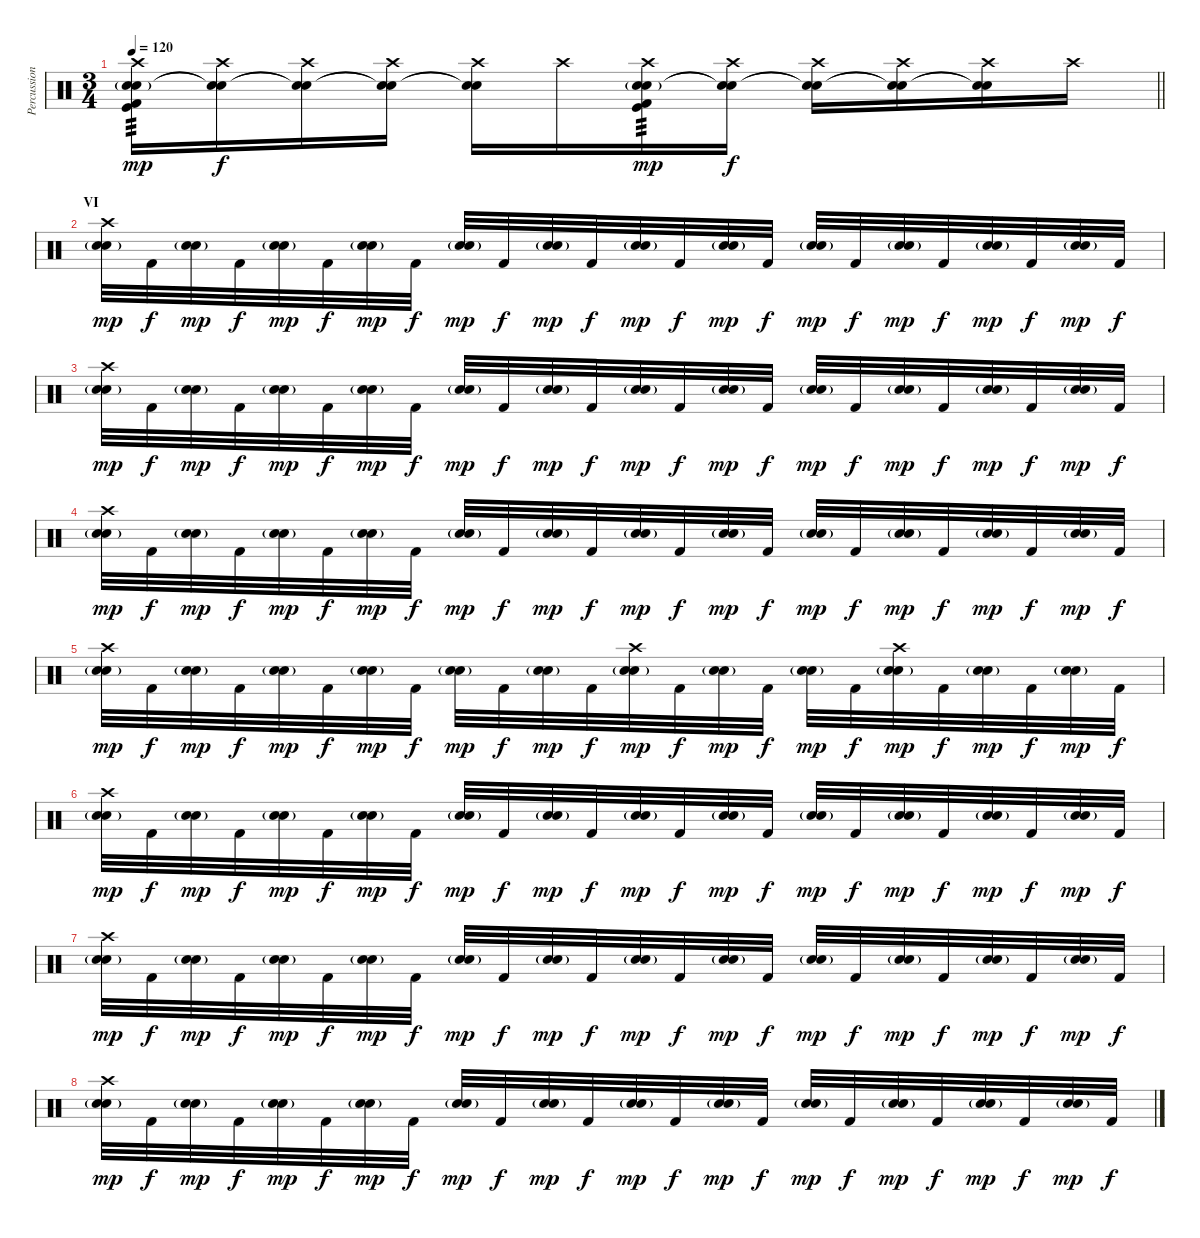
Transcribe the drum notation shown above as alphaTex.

\track ("Percussion" "Percussion") {instrument percussion}
\staff {score}
\articulation defaults
\ts (3 4)
\tempo 120
\clef neutral
\barLineRight lightlight
\ks c
("Crash high (hit)" "Electric Snare (hit)" "Snare (hit) 2"{g} "Kick (hit) 2" "Kick (hit)").16{tp 3 dy mp} ("Crash high (hit)" "Snare (hit)"{t} "Snare (hit)"{t}).16{dy f} ("Crash high (hit)" "Snare (hit)"{t} "Snare (hit)"{t}).16 ("Crash high (hit)" "Snare (hit)"{t} "Snare (hit)"{t}).16 ("Crash high (hit)" "Snare (hit)"{t} "Snare (hit)"{t}).16 "Crash high (hit)".16 ("Crash high (hit)" "Electric Snare (hit)" "Snare (hit) 2"{g} "Kick (hit) 2" "Kick (hit)").16{tp 3 dy mp} ("Crash high (hit)" "Snare (hit)"{t} "Snare (hit)"{t}).16{dy f} ("Crash high (hit)" "Snare (hit)"{t} "Snare (hit)"{t}).16 ("Crash high (hit)" "Snare (hit)"{t} "Snare (hit)"{t}).16 ("Crash high (hit)" "Snare (hit)"{t} "Snare (hit)"{t}).16 "Crash high (hit)".16 |
\section ("" "VI")
("Crash high (hit)" "Electric Snare (hit)" "Snare (hit) 2"{g}).32{dy mp} "Kick (hit) 2".32{dy f} ("Electric Snare (hit)" "Snare (hit) 2"{g}).32{dy mp} "Kick (hit) 2".32{dy f} ("Electric Snare (hit)" "Snare (hit) 2"{g}).32{dy mp} "Kick (hit) 2".32{dy f} ("Electric Snare (hit)" "Snare (hit) 2"{g}).32{dy mp} "Kick (hit) 2".32{dy f} ("Electric Snare (hit)" "Snare (hit) 2"{g}).32{dy mp} "Kick (hit) 2".32{dy f} ("Electric Snare (hit)" "Snare (hit) 2"{g}).32{dy mp} "Kick (hit) 2".32{dy f} ("Electric Snare (hit)" "Snare (hit) 2"{g}).32{dy mp} "Kick (hit) 2".32{dy f} ("Electric Snare (hit)" "Snare (hit) 2"{g}).32{dy mp} "Kick (hit) 2".32{dy f} ("Electric Snare (hit)" "Snare (hit) 2"{g}).32{dy mp} "Kick (hit) 2".32{dy f} ("Electric Snare (hit)" "Snare (hit) 2"{g}).32{dy mp} "Kick (hit) 2".32{dy f} ("Electric Snare (hit)" "Snare (hit) 2"{g}).32{dy mp} "Kick (hit) 2".32{dy f} ("Electric Snare (hit)" "Snare (hit) 2"{g}).32{dy mp} "Kick (hit) 2".32{dy f} |
("Crash high (hit)" "Electric Snare (hit)" "Snare (hit) 2"{g}).32{dy mp} "Kick (hit) 2".32{dy f} ("Electric Snare (hit)" "Snare (hit) 2"{g}).32{dy mp} "Kick (hit) 2".32{dy f} ("Electric Snare (hit)" "Snare (hit) 2"{g}).32{dy mp} "Kick (hit) 2".32{dy f} ("Electric Snare (hit)" "Snare (hit) 2"{g}).32{dy mp} "Kick (hit) 2".32{dy f} ("Electric Snare (hit)" "Snare (hit) 2"{g}).32{dy mp} "Kick (hit) 2".32{dy f} ("Electric Snare (hit)" "Snare (hit) 2"{g}).32{dy mp} "Kick (hit) 2".32{dy f} ("Electric Snare (hit)" "Snare (hit) 2"{g}).32{dy mp} "Kick (hit) 2".32{dy f} ("Electric Snare (hit)" "Snare (hit) 2"{g}).32{dy mp} "Kick (hit) 2".32{dy f} ("Electric Snare (hit)" "Snare (hit) 2"{g}).32{dy mp} "Kick (hit) 2".32{dy f} ("Electric Snare (hit)" "Snare (hit) 2"{g}).32{dy mp} "Kick (hit) 2".32{dy f} ("Electric Snare (hit)" "Snare (hit) 2"{g}).32{dy mp} "Kick (hit) 2".32{dy f} ("Electric Snare (hit)" "Snare (hit) 2"{g}).32{dy mp} "Kick (hit) 2".32{dy f} |
("Crash high (hit)" "Electric Snare (hit)" "Snare (hit) 2"{g}).32{dy mp} "Kick (hit) 2".32{dy f} ("Electric Snare (hit)" "Snare (hit) 2"{g}).32{dy mp} "Kick (hit) 2".32{dy f} ("Electric Snare (hit)" "Snare (hit) 2"{g}).32{dy mp} "Kick (hit) 2".32{dy f} ("Electric Snare (hit)" "Snare (hit) 2"{g}).32{dy mp} "Kick (hit) 2".32{dy f} ("Electric Snare (hit)" "Snare (hit) 2"{g}).32{dy mp} "Kick (hit) 2".32{dy f} ("Electric Snare (hit)" "Snare (hit) 2"{g}).32{dy mp} "Kick (hit) 2".32{dy f} ("Electric Snare (hit)" "Snare (hit) 2"{g}).32{dy mp} "Kick (hit) 2".32{dy f} ("Electric Snare (hit)" "Snare (hit) 2"{g}).32{dy mp} "Kick (hit) 2".32{dy f} ("Electric Snare (hit)" "Snare (hit) 2"{g}).32{dy mp} "Kick (hit) 2".32{dy f} ("Electric Snare (hit)" "Snare (hit) 2"{g}).32{dy mp} "Kick (hit) 2".32{dy f} ("Electric Snare (hit)" "Snare (hit) 2"{g}).32{dy mp} "Kick (hit) 2".32{dy f} ("Electric Snare (hit)" "Snare (hit) 2"{g}).32{dy mp} "Kick (hit) 2".32{dy f} |
("Crash high (hit)" "Electric Snare (hit)" "Snare (hit) 2"{g}).32{dy mp} "Kick (hit) 2".32{dy f} ("Electric Snare (hit)" "Snare (hit) 2"{g}).32{dy mp} "Kick (hit) 2".32{dy f} ("Electric Snare (hit)" "Snare (hit) 2"{g}).32{dy mp} "Kick (hit) 2".32{dy f} ("Electric Snare (hit)" "Snare (hit) 2"{g}).32{dy mp} "Kick (hit) 2".32{dy f} ("Electric Snare (hit)" "Snare (hit) 2"{g}).32{dy mp} "Kick (hit) 2".32{dy f} ("Electric Snare (hit)" "Snare (hit) 2"{g}).32{dy mp} "Kick (hit) 2".32{dy f} ("Crash high (hit)" "Electric Snare (hit)" "Snare (hit) 2"{g}).32{dy mp} "Kick (hit) 2".32{dy f} ("Electric Snare (hit)" "Snare (hit) 2"{g}).32{dy mp} "Kick (hit) 2".32{dy f} ("Electric Snare (hit)" "Snare (hit) 2"{g}).32{dy mp} "Kick (hit) 2".32{dy f} ("Crash high (hit)" "Electric Snare (hit)" "Snare (hit) 2"{g}).32{dy mp} "Kick (hit) 2".32{dy f} ("Electric Snare (hit)" "Snare (hit) 2"{g}).32{dy mp} "Kick (hit) 2".32{dy f} ("Electric Snare (hit)" "Snare (hit) 2"{g}).32{dy mp} "Kick (hit) 2".32{dy f} |
("Crash high (hit)" "Electric Snare (hit)" "Snare (hit) 2"{g}).32{dy mp} "Kick (hit) 2".32{dy f} ("Electric Snare (hit)" "Snare (hit) 2"{g}).32{dy mp} "Kick (hit) 2".32{dy f} ("Electric Snare (hit)" "Snare (hit) 2"{g}).32{dy mp} "Kick (hit) 2".32{dy f} ("Electric Snare (hit)" "Snare (hit) 2"{g}).32{dy mp} "Kick (hit) 2".32{dy f} ("Electric Snare (hit)" "Snare (hit) 2"{g}).32{dy mp} "Kick (hit) 2".32{dy f} ("Electric Snare (hit)" "Snare (hit) 2"{g}).32{dy mp} "Kick (hit) 2".32{dy f} ("Electric Snare (hit)" "Snare (hit) 2"{g}).32{dy mp} "Kick (hit) 2".32{dy f} ("Electric Snare (hit)" "Snare (hit) 2"{g}).32{dy mp} "Kick (hit) 2".32{dy f} ("Electric Snare (hit)" "Snare (hit) 2"{g}).32{dy mp} "Kick (hit) 2".32{dy f} ("Electric Snare (hit)" "Snare (hit) 2"{g}).32{dy mp} "Kick (hit) 2".32{dy f} ("Electric Snare (hit)" "Snare (hit) 2"{g}).32{dy mp} "Kick (hit) 2".32{dy f} ("Electric Snare (hit)" "Snare (hit) 2"{g}).32{dy mp} "Kick (hit) 2".32{dy f} |
("Crash high (hit)" "Electric Snare (hit)" "Snare (hit) 2"{g}).32{dy mp} "Kick (hit) 2".32{dy f} ("Electric Snare (hit)" "Snare (hit) 2"{g}).32{dy mp} "Kick (hit) 2".32{dy f} ("Electric Snare (hit)" "Snare (hit) 2"{g}).32{dy mp} "Kick (hit) 2".32{dy f} ("Electric Snare (hit)" "Snare (hit) 2"{g}).32{dy mp} "Kick (hit) 2".32{dy f} ("Electric Snare (hit)" "Snare (hit) 2"{g}).32{dy mp} "Kick (hit) 2".32{dy f} ("Electric Snare (hit)" "Snare (hit) 2"{g}).32{dy mp} "Kick (hit) 2".32{dy f} ("Electric Snare (hit)" "Snare (hit) 2"{g}).32{dy mp} "Kick (hit) 2".32{dy f} ("Electric Snare (hit)" "Snare (hit) 2"{g}).32{dy mp} "Kick (hit) 2".32{dy f} ("Electric Snare (hit)" "Snare (hit) 2"{g}).32{dy mp} "Kick (hit) 2".32{dy f} ("Electric Snare (hit)" "Snare (hit) 2"{g}).32{dy mp} "Kick (hit) 2".32{dy f} ("Electric Snare (hit)" "Snare (hit) 2"{g}).32{dy mp} "Kick (hit) 2".32{dy f} ("Electric Snare (hit)" "Snare (hit) 2"{g}).32{dy mp} "Kick (hit) 2".32{dy f} |
("Crash high (hit)" "Electric Snare (hit)" "Snare (hit) 2"{g}).32{dy mp} "Kick (hit) 2".32{dy f} ("Electric Snare (hit)" "Snare (hit) 2"{g}).32{dy mp} "Kick (hit) 2".32{dy f} ("Electric Snare (hit)" "Snare (hit) 2"{g}).32{dy mp} "Kick (hit) 2".32{dy f} ("Electric Snare (hit)" "Snare (hit) 2"{g}).32{dy mp} "Kick (hit) 2".32{dy f} ("Electric Snare (hit)" "Snare (hit) 2"{g}).32{dy mp} "Kick (hit) 2".32{dy f} ("Electric Snare (hit)" "Snare (hit) 2"{g}).32{dy mp} "Kick (hit) 2".32{dy f} ("Electric Snare (hit)" "Snare (hit) 2"{g}).32{dy mp} "Kick (hit) 2".32{dy f} ("Electric Snare (hit)" "Snare (hit) 2"{g}).32{dy mp} "Kick (hit) 2".32{dy f} ("Electric Snare (hit)" "Snare (hit) 2"{g}).32{dy mp} "Kick (hit) 2".32{dy f} ("Electric Snare (hit)" "Snare (hit) 2"{g}).32{dy mp} "Kick (hit) 2".32{dy f} ("Electric Snare (hit)" "Snare (hit) 2"{g}).32{dy mp} "Kick (hit) 2".32{dy f} ("Electric Snare (hit)" "Snare (hit) 2"{g}).32{dy mp} "Kick (hit) 2".32{dy f}
